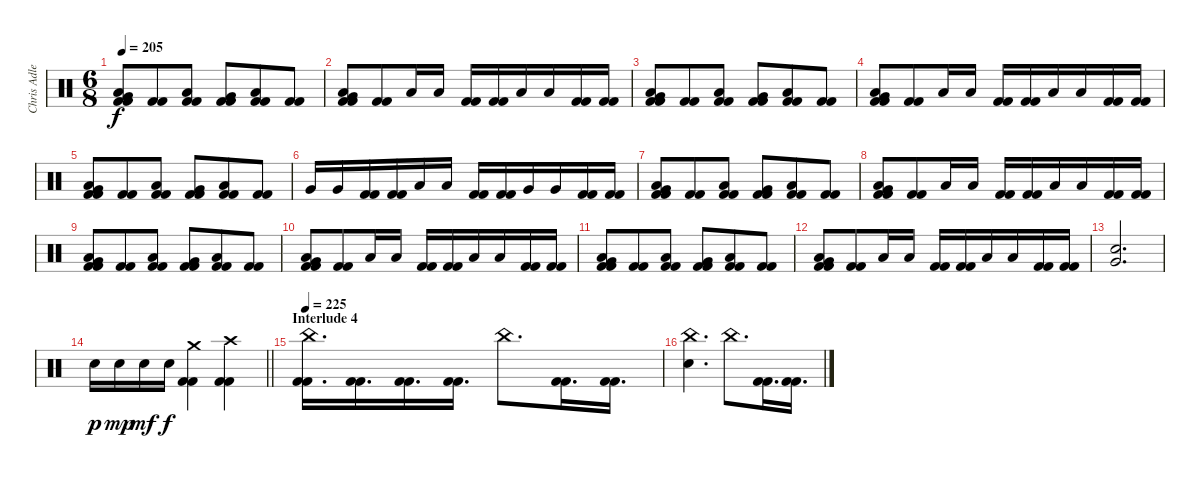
\track ("Chris Adler" "Chris Adle") {instrument percussion}
\staff {score}
\articulation defaults
\ts (6 8)
\tempo 205
\clef neutral
\ks c
("Very Low Tom (hit)" "Low Floor Tom (hit)" "Kick (hit) 2" "Kick (hit) 2").8{dy f} ("Kick (hit) 2" "Kick (hit) 2").8 ("Low Floor Tom (hit)" "Kick (hit) 2" "Kick (hit) 2").8 ("Very Low Tom (hit)" "Kick (hit) 2" "Kick (hit) 2").8 ("Low Floor Tom (hit)" "Kick (hit) 2" "Kick (hit) 2").8 ("Kick (hit) 2" "Kick (hit) 2").8 |
("Very Low Tom (hit)" "Low Floor Tom (hit)" "Kick (hit) 2" "Kick (hit) 2").8 ("Kick (hit) 2" "Kick (hit) 2").8 "Low Floor Tom (hit)".16 "Low Floor Tom (hit)".16 ("Kick (hit) 2" "Kick (hit) 2").16 ("Kick (hit) 2" "Kick (hit) 2").16 "Low Floor Tom (hit)".16 "Low Floor Tom (hit)".16 ("Kick (hit) 2" "Kick (hit) 2").16 ("Kick (hit) 2" "Kick (hit) 2").16 |
("Very Low Tom (hit)" "Low Floor Tom (hit)" "Kick (hit) 2" "Kick (hit) 2").8 ("Kick (hit) 2" "Kick (hit) 2").8 ("Low Floor Tom (hit)" "Kick (hit) 2" "Kick (hit) 2").8 ("Very Low Tom (hit)" "Kick (hit) 2" "Kick (hit) 2").8 ("Low Floor Tom (hit)" "Kick (hit) 2" "Kick (hit) 2").8 ("Kick (hit) 2" "Kick (hit) 2").8 |
("Very Low Tom (hit)" "Low Floor Tom (hit)" "Kick (hit) 2" "Kick (hit) 2").8 ("Kick (hit) 2" "Kick (hit) 2").8 "Low Floor Tom (hit)".16 "Low Floor Tom (hit)".16 ("Kick (hit) 2" "Kick (hit) 2").16 ("Kick (hit) 2" "Kick (hit) 2").16 "Low Floor Tom (hit)".16 "Low Floor Tom (hit)".16 ("Kick (hit) 2" "Kick (hit) 2").16 ("Kick (hit) 2" "Kick (hit) 2").16 |
("Very Low Tom (hit)" "Low Floor Tom (hit)" "Kick (hit) 2" "Kick (hit) 2").8 ("Kick (hit) 2" "Kick (hit) 2").8 ("Low Floor Tom (hit)" "Kick (hit) 2" "Kick (hit) 2").8 ("Very Low Tom (hit)" "Kick (hit) 2" "Kick (hit) 2").8 ("Low Floor Tom (hit)" "Kick (hit) 2" "Kick (hit) 2").8 ("Kick (hit) 2" "Kick (hit) 2").8 |
"Very Low Tom (hit)".16 "Very Low Tom (hit)".16 ("Kick (hit) 2" "Kick (hit) 2").16 ("Kick (hit) 2" "Kick (hit) 2").16 "Low Floor Tom (hit)".16 "Low Floor Tom (hit)".16 ("Kick (hit) 2" "Kick (hit) 2").16 ("Kick (hit) 2" "Kick (hit) 2").16 "Very Low Tom (hit)".16 "Very Low Tom (hit)".16 ("Kick (hit) 2" "Kick (hit) 2").16 ("Kick (hit) 2" "Kick (hit) 2").16 |
("Very Low Tom (hit)" "Low Floor Tom (hit)" "Kick (hit) 2" "Kick (hit) 2").8 ("Kick (hit) 2" "Kick (hit) 2").8 ("Low Floor Tom (hit)" "Kick (hit) 2" "Kick (hit) 2").8 ("Very Low Tom (hit)" "Kick (hit) 2" "Kick (hit) 2").8 ("Low Floor Tom (hit)" "Kick (hit) 2" "Kick (hit) 2").8 ("Kick (hit) 2" "Kick (hit) 2").8 |
("Very Low Tom (hit)" "Low Floor Tom (hit)" "Kick (hit) 2" "Kick (hit) 2").8 ("Kick (hit) 2" "Kick (hit) 2").8 "Low Floor Tom (hit)".16 "Low Floor Tom (hit)".16 ("Kick (hit) 2" "Kick (hit) 2").16 ("Kick (hit) 2" "Kick (hit) 2").16 "Low Floor Tom (hit)".16 "Low Floor Tom (hit)".16 ("Kick (hit) 2" "Kick (hit) 2").16 ("Kick (hit) 2" "Kick (hit) 2").16 |
("Very Low Tom (hit)" "Low Floor Tom (hit)" "Kick (hit) 2" "Kick (hit) 2").8 ("Kick (hit) 2" "Kick (hit) 2").8 ("Low Floor Tom (hit)" "Kick (hit) 2" "Kick (hit) 2").8 ("Very Low Tom (hit)" "Kick (hit) 2" "Kick (hit) 2").8 ("Low Floor Tom (hit)" "Kick (hit) 2" "Kick (hit) 2").8 ("Kick (hit) 2" "Kick (hit) 2").8 |
("Very Low Tom (hit)" "Low Floor Tom (hit)" "Kick (hit) 2" "Kick (hit) 2").8 ("Kick (hit) 2" "Kick (hit) 2").8 "Low Floor Tom (hit)".16 "Low Floor Tom (hit)".16 ("Kick (hit) 2" "Kick (hit) 2").16 ("Kick (hit) 2" "Kick (hit) 2").16 "Low Floor Tom (hit)".16 "Low Floor Tom (hit)".16 ("Kick (hit) 2" "Kick (hit) 2").16 ("Kick (hit) 2" "Kick (hit) 2").16 |
("Very Low Tom (hit)" "Low Floor Tom (hit)" "Kick (hit) 2" "Kick (hit) 2").8 ("Kick (hit) 2" "Kick (hit) 2").8 ("Low Floor Tom (hit)" "Kick (hit) 2" "Kick (hit) 2").8 ("Very Low Tom (hit)" "Kick (hit) 2" "Kick (hit) 2").8 ("Low Floor Tom (hit)" "Kick (hit) 2" "Kick (hit) 2").8 ("Kick (hit) 2" "Kick (hit) 2").8 |
("Very Low Tom (hit)" "Low Floor Tom (hit)" "Kick (hit) 2" "Kick (hit) 2").8 ("Kick (hit) 2" "Kick (hit) 2").8 "Low Floor Tom (hit)".16 "Low Floor Tom (hit)".16 ("Kick (hit) 2" "Kick (hit) 2").16 ("Kick (hit) 2" "Kick (hit) 2").16 "Low Floor Tom (hit)".16 "Low Floor Tom (hit)".16 ("Kick (hit) 2" "Kick (hit) 2").16 ("Kick (hit) 2" "Kick (hit) 2").16 |
("Electric Snare (hit)" "Very Low Tom (hit)").2{d} |
\barLineRight lightlight "Electric Snare (hit)".16{dy p} "Electric Snare (hit)".16{dy mp} "Electric Snare (hit)".16{dy mf} "Electric Snare (hit)".16{dy f}
("Crash medium (hit)" "Kick (hit) 2" "Kick (hit) 2").4 ("Crash high (hit)" "Kick (hit) 2" "Kick (hit) 2").4 |
\section ("" "Interlude 4")
\tempo 225
("China (hit)" "Kick (hit) 2" "Kick (hit) 2").16{d} ("Kick (hit) 2" "Kick (hit) 2").16{d} ("Kick (hit) 2" "Kick (hit) 2").16{d} ("Kick (hit) 2" "Kick (hit) 2").16{d} "China (hit)".8{d} ("Kick (hit) 2" "Kick (hit) 2").16{d} ("Kick (hit) 2" "Kick (hit) 2").16{d} |
("China (hit)" "Electric Snare (hit)").4{d} "China (hit)".8{d} ("Kick (hit) 2" "Kick (hit) 2").16{d} ("Kick (hit) 2" "Kick (hit) 2").16{d}
